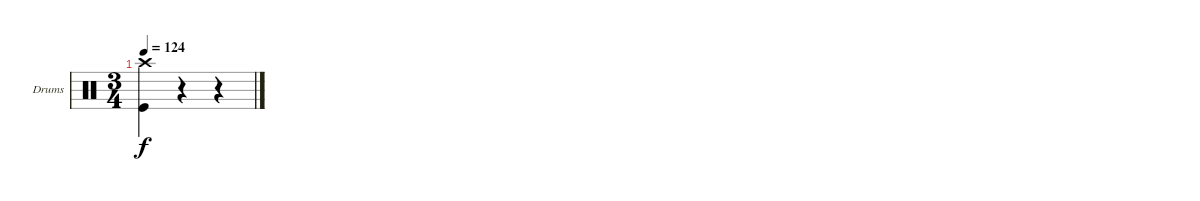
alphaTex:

\defaultSystemsLayout 4
\bracketExtendMode groupsimilarinstruments
\firstSystemTrackNameOrientation horizontal
\otherSystemsTrackNameOrientation horizontal
\track ("Drumkit" "Drums") {instrument percussion}
\staff {score}
\articulation defaults
\ts (3 4)
\tempo 124
\clef neutral
\ks c
("Crash high (hit)" "Kick (hit)").4{dy f} r.4 r.4
